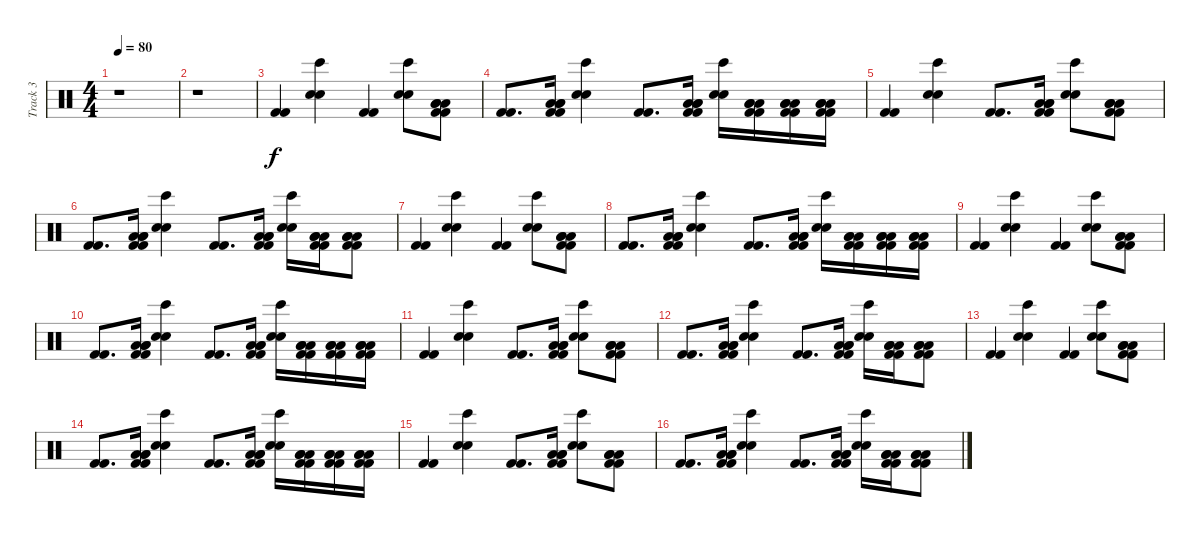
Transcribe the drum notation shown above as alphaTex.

\track ("Track 3" "Track 3") {instrument percussion}
\staff {score}
\articulation defaults
\ts (4 4)
\tempo 80
\clef neutral
\ks c
r.1{dy f} |
r.1 |
("Kick (hit) 2" "Kick (hit) 2").4 ("Hand Clap (hit)" "Hand Clap (hit)" "Bongo High (hit)").4 ("Kick (hit) 2" "Kick (hit) 2").4 ("Hand Clap (hit)" "Hand Clap (hit)" "Bongo High (hit)").8 ("Kick (hit) 2" "Kick (hit) 2" "Low Floor Tom (hit)" "Low Floor Tom (hit)" "Low Floor Tom (hit)").8 |
("Kick (hit) 2" "Kick (hit) 2").8{d} ("Kick (hit) 2" "Kick (hit) 2" "Low Floor Tom (hit)" "Low Floor Tom (hit)" "Low Floor Tom (hit)").16 ("Hand Clap (hit)" "Hand Clap (hit)" "Bongo High (hit)").4 ("Kick (hit) 2" "Kick (hit) 2").8{d} ("Kick (hit) 2" "Kick (hit) 2" "Low Floor Tom (hit)" "Low Floor Tom (hit)" "Low Floor Tom (hit)").16 ("Hand Clap (hit)" "Hand Clap (hit)" "Bongo High (hit)").16 ("Kick (hit) 2" "Kick (hit) 2" "Low Floor Tom (hit)" "Low Floor Tom (hit)" "Low Floor Tom (hit)").16 ("Kick (hit) 2" "Kick (hit) 2" "Low Floor Tom (hit)" "Low Floor Tom (hit)" "Low Floor Tom (hit)").16 ("Kick (hit) 2" "Kick (hit) 2" "Low Floor Tom (hit)" "Low Floor Tom (hit)" "Low Floor Tom (hit)").16 |
("Kick (hit) 2" "Kick (hit) 2").4 ("Hand Clap (hit)" "Hand Clap (hit)" "Bongo High (hit)").4 ("Kick (hit) 2" "Kick (hit) 2").8{d} ("Kick (hit) 2" "Kick (hit) 2" "Low Floor Tom (hit)" "Low Floor Tom (hit)" "Low Floor Tom (hit)").16 ("Hand Clap (hit)" "Hand Clap (hit)" "Bongo High (hit)").8 ("Kick (hit) 2" "Kick (hit) 2" "Low Floor Tom (hit)" "Low Floor Tom (hit)" "Low Floor Tom (hit)").8 |
("Kick (hit) 2" "Kick (hit) 2").8{d} ("Kick (hit) 2" "Kick (hit) 2" "Low Floor Tom (hit)" "Low Floor Tom (hit)" "Low Floor Tom (hit)").16 ("Hand Clap (hit)" "Hand Clap (hit)" "Bongo High (hit)").4 ("Kick (hit) 2" "Kick (hit) 2").8{d} ("Kick (hit) 2" "Kick (hit) 2" "Low Floor Tom (hit)" "Low Floor Tom (hit)" "Low Floor Tom (hit)").16 ("Hand Clap (hit)" "Hand Clap (hit)" "Bongo High (hit)").16 ("Kick (hit) 2" "Kick (hit) 2" "Low Floor Tom (hit)" "Low Floor Tom (hit)" "Low Floor Tom (hit)").16 ("Kick (hit) 2" "Kick (hit) 2" "Low Floor Tom (hit)" "Low Floor Tom (hit)" "Low Floor Tom (hit)").8 |
("Kick (hit) 2" "Kick (hit) 2").4 ("Hand Clap (hit)" "Hand Clap (hit)" "Bongo High (hit)").4 ("Kick (hit) 2" "Kick (hit) 2").4 ("Hand Clap (hit)" "Hand Clap (hit)" "Bongo High (hit)").8 ("Kick (hit) 2" "Kick (hit) 2" "Low Floor Tom (hit)" "Low Floor Tom (hit)" "Low Floor Tom (hit)").8 |
("Kick (hit) 2" "Kick (hit) 2").8{d} ("Kick (hit) 2" "Kick (hit) 2" "Low Floor Tom (hit)" "Low Floor Tom (hit)" "Low Floor Tom (hit)").16 ("Hand Clap (hit)" "Hand Clap (hit)" "Bongo High (hit)").4 ("Kick (hit) 2" "Kick (hit) 2").8{d} ("Kick (hit) 2" "Kick (hit) 2" "Low Floor Tom (hit)" "Low Floor Tom (hit)" "Low Floor Tom (hit)").16 ("Hand Clap (hit)" "Hand Clap (hit)" "Bongo High (hit)").16 ("Kick (hit) 2" "Kick (hit) 2" "Low Floor Tom (hit)" "Low Floor Tom (hit)" "Low Floor Tom (hit)").16 ("Kick (hit) 2" "Kick (hit) 2" "Low Floor Tom (hit)" "Low Floor Tom (hit)" "Low Floor Tom (hit)").16 ("Kick (hit) 2" "Kick (hit) 2" "Low Floor Tom (hit)" "Low Floor Tom (hit)" "Low Floor Tom (hit)").16 |
("Kick (hit) 2" "Kick (hit) 2").4 ("Hand Clap (hit)" "Hand Clap (hit)" "Bongo High (hit)").4 ("Kick (hit) 2" "Kick (hit) 2").4 ("Hand Clap (hit)" "Hand Clap (hit)" "Bongo High (hit)").8 ("Kick (hit) 2" "Kick (hit) 2" "Low Floor Tom (hit)" "Low Floor Tom (hit)" "Low Floor Tom (hit)").8 |
("Kick (hit) 2" "Kick (hit) 2").8{d} ("Kick (hit) 2" "Kick (hit) 2" "Low Floor Tom (hit)" "Low Floor Tom (hit)" "Low Floor Tom (hit)").16 ("Hand Clap (hit)" "Hand Clap (hit)" "Bongo High (hit)").4 ("Kick (hit) 2" "Kick (hit) 2").8{d} ("Kick (hit) 2" "Kick (hit) 2" "Low Floor Tom (hit)" "Low Floor Tom (hit)" "Low Floor Tom (hit)").16 ("Hand Clap (hit)" "Hand Clap (hit)" "Bongo High (hit)").16 ("Kick (hit) 2" "Kick (hit) 2" "Low Floor Tom (hit)" "Low Floor Tom (hit)" "Low Floor Tom (hit)").16 ("Kick (hit) 2" "Kick (hit) 2" "Low Floor Tom (hit)" "Low Floor Tom (hit)" "Low Floor Tom (hit)").16 ("Kick (hit) 2" "Kick (hit) 2" "Low Floor Tom (hit)" "Low Floor Tom (hit)" "Low Floor Tom (hit)").16 |
("Kick (hit) 2" "Kick (hit) 2").4 ("Hand Clap (hit)" "Hand Clap (hit)" "Bongo High (hit)").4 ("Kick (hit) 2" "Kick (hit) 2").8{d} ("Kick (hit) 2" "Kick (hit) 2" "Low Floor Tom (hit)" "Low Floor Tom (hit)" "Low Floor Tom (hit)").16 ("Hand Clap (hit)" "Hand Clap (hit)" "Bongo High (hit)").8 ("Kick (hit) 2" "Kick (hit) 2" "Low Floor Tom (hit)" "Low Floor Tom (hit)" "Low Floor Tom (hit)").8 |
("Kick (hit) 2" "Kick (hit) 2").8{d} ("Kick (hit) 2" "Kick (hit) 2" "Low Floor Tom (hit)" "Low Floor Tom (hit)" "Low Floor Tom (hit)").16 ("Hand Clap (hit)" "Hand Clap (hit)" "Bongo High (hit)").4 ("Kick (hit) 2" "Kick (hit) 2").8{d} ("Kick (hit) 2" "Kick (hit) 2" "Low Floor Tom (hit)" "Low Floor Tom (hit)" "Low Floor Tom (hit)").16 ("Hand Clap (hit)" "Hand Clap (hit)" "Bongo High (hit)").16 ("Kick (hit) 2" "Kick (hit) 2" "Low Floor Tom (hit)" "Low Floor Tom (hit)" "Low Floor Tom (hit)").16 ("Kick (hit) 2" "Kick (hit) 2" "Low Floor Tom (hit)" "Low Floor Tom (hit)" "Low Floor Tom (hit)").8 |
("Kick (hit) 2" "Kick (hit) 2").4 ("Hand Clap (hit)" "Hand Clap (hit)" "Bongo High (hit)").4 ("Kick (hit) 2" "Kick (hit) 2").4 ("Hand Clap (hit)" "Hand Clap (hit)" "Bongo High (hit)").8 ("Kick (hit) 2" "Kick (hit) 2" "Low Floor Tom (hit)" "Low Floor Tom (hit)" "Low Floor Tom (hit)").8 |
("Kick (hit) 2" "Kick (hit) 2").8{d} ("Kick (hit) 2" "Kick (hit) 2" "Low Floor Tom (hit)" "Low Floor Tom (hit)" "Low Floor Tom (hit)").16 ("Hand Clap (hit)" "Hand Clap (hit)" "Bongo High (hit)").4 ("Kick (hit) 2" "Kick (hit) 2").8{d} ("Kick (hit) 2" "Kick (hit) 2" "Low Floor Tom (hit)" "Low Floor Tom (hit)" "Low Floor Tom (hit)").16 ("Hand Clap (hit)" "Hand Clap (hit)" "Bongo High (hit)").16 ("Kick (hit) 2" "Kick (hit) 2" "Low Floor Tom (hit)" "Low Floor Tom (hit)" "Low Floor Tom (hit)").16 ("Kick (hit) 2" "Kick (hit) 2" "Low Floor Tom (hit)" "Low Floor Tom (hit)" "Low Floor Tom (hit)").16 ("Kick (hit) 2" "Kick (hit) 2" "Low Floor Tom (hit)" "Low Floor Tom (hit)" "Low Floor Tom (hit)").16 |
("Kick (hit) 2" "Kick (hit) 2").4 ("Hand Clap (hit)" "Hand Clap (hit)" "Bongo High (hit)").4 ("Kick (hit) 2" "Kick (hit) 2").8{d} ("Kick (hit) 2" "Kick (hit) 2" "Low Floor Tom (hit)" "Low Floor Tom (hit)" "Low Floor Tom (hit)").16 ("Hand Clap (hit)" "Hand Clap (hit)" "Bongo High (hit)").8 ("Kick (hit) 2" "Kick (hit) 2" "Low Floor Tom (hit)" "Low Floor Tom (hit)" "Low Floor Tom (hit)").8 |
("Kick (hit) 2" "Kick (hit) 2").8{d} ("Kick (hit) 2" "Kick (hit) 2" "Low Floor Tom (hit)" "Low Floor Tom (hit)" "Low Floor Tom (hit)").16 ("Hand Clap (hit)" "Hand Clap (hit)" "Bongo High (hit)").4 ("Kick (hit) 2" "Kick (hit) 2").8{d} ("Kick (hit) 2" "Kick (hit) 2" "Low Floor Tom (hit)" "Low Floor Tom (hit)" "Low Floor Tom (hit)").16 ("Hand Clap (hit)" "Hand Clap (hit)" "Bongo High (hit)").16 ("Kick (hit) 2" "Kick (hit) 2" "Low Floor Tom (hit)" "Low Floor Tom (hit)" "Low Floor Tom (hit)").16 ("Kick (hit) 2" "Kick (hit) 2" "Low Floor Tom (hit)" "Low Floor Tom (hit)" "Low Floor Tom (hit)").8
